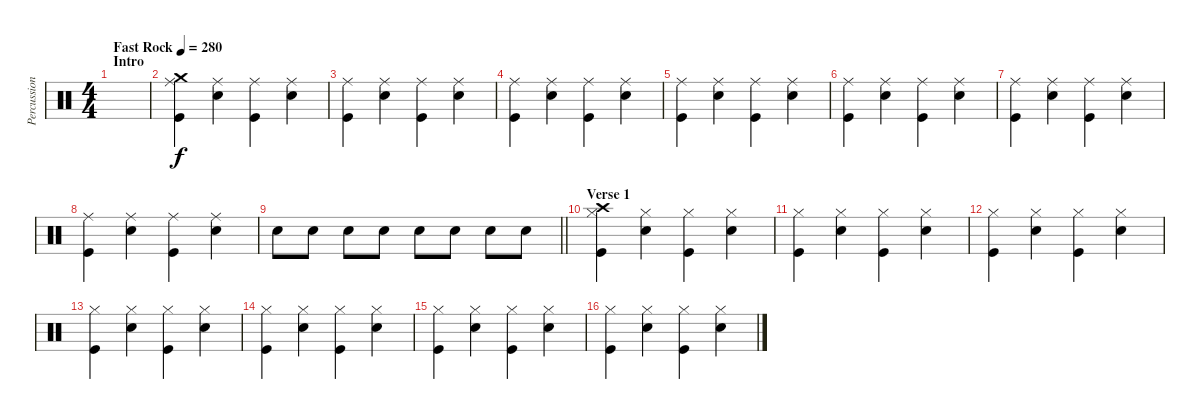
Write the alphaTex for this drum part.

\track ("Percussion" "Percussion") {instrument percussion}
\staff {score}
\articulation defaults
\ts (4 4)
\section ("" "Intro")
\tempo (280 "Fast Rock")
\clef neutral
\ks c
|
("Crash medium (hit)" "Ride (middle)" "Kick (hit)").4 ("Ride (middle)" "Snare (hit) 2").4 ("Ride (middle)" "Kick (hit)").4 ("Ride (middle)" "Snare (hit) 2").4 |
("Ride (middle)" "Kick (hit)").4 ("Ride (middle)" "Snare (hit) 2").4 ("Ride (middle)" "Kick (hit)").4 ("Ride (middle)" "Snare (hit) 2").4 |
("Ride (middle)" "Kick (hit)").4 ("Ride (middle)" "Snare (hit) 2").4 ("Ride (middle)" "Kick (hit)").4 ("Ride (middle)" "Snare (hit) 2").4 |
("Ride (middle)" "Kick (hit)").4 ("Ride (middle)" "Snare (hit) 2").4 ("Ride (middle)" "Kick (hit)").4 ("Ride (middle)" "Snare (hit) 2").4 |
("Ride (middle)" "Kick (hit)").4 ("Ride (middle)" "Snare (hit) 2").4 ("Ride (middle)" "Kick (hit)").4 ("Ride (middle)" "Snare (hit) 2").4 |
("Ride (middle)" "Kick (hit)").4 ("Ride (middle)" "Snare (hit) 2").4 ("Ride (middle)" "Kick (hit)").4 ("Ride (middle)" "Snare (hit) 2").4 |
("Ride (middle)" "Kick (hit)").4 ("Ride (middle)" "Snare (hit) 2").4 ("Ride (middle)" "Kick (hit)").4 ("Ride (middle)" "Snare (hit) 2").4 |
\barLineRight lightlight "Snare (hit) 2".8 "Snare (hit) 2".8 "Snare (hit) 2".8 "Snare (hit) 2".8 "Snare (hit) 2".8 "Snare (hit) 2".8 "Snare (hit) 2".8 "Snare (hit) 2".8
|
\section ("" "Verse 1")
("Crash high (hit)" "Hi-Hat (closed)" "Kick (hit)").4 ("Hi-Hat (closed)" "Snare (hit) 2").4 ("Hi-Hat (closed)" "Kick (hit)").4 ("Hi-Hat (closed)" "Snare (hit) 2").4 |
("Hi-Hat (closed)" "Kick (hit)").4 ("Hi-Hat (closed)" "Snare (hit) 2").4 ("Hi-Hat (closed)" "Kick (hit)").4 ("Hi-Hat (closed)" "Snare (hit) 2").4 |
("Hi-Hat (closed)" "Kick (hit)").4 ("Hi-Hat (closed)" "Snare (hit) 2").4 ("Hi-Hat (closed)" "Kick (hit)").4 ("Hi-Hat (closed)" "Snare (hit) 2").4 |
("Hi-Hat (closed)" "Kick (hit)").4 ("Hi-Hat (closed)" "Snare (hit) 2").4 ("Hi-Hat (closed)" "Kick (hit)").4 ("Hi-Hat (closed)" "Snare (hit) 2").4 |
("Hi-Hat (closed)" "Kick (hit)").4 ("Hi-Hat (closed)" "Snare (hit) 2").4 ("Hi-Hat (closed)" "Kick (hit)").4 ("Hi-Hat (closed)" "Snare (hit) 2").4 |
("Hi-Hat (closed)" "Kick (hit)").4 ("Hi-Hat (closed)" "Snare (hit) 2").4 ("Hi-Hat (closed)" "Kick (hit)").4 ("Hi-Hat (closed)" "Snare (hit) 2").4 |
("Hi-Hat (closed)" "Kick (hit)").4 ("Hi-Hat (closed)" "Snare (hit) 2").4 ("Hi-Hat (closed)" "Kick (hit)").4 ("Hi-Hat (closed)" "Snare (hit) 2").4
